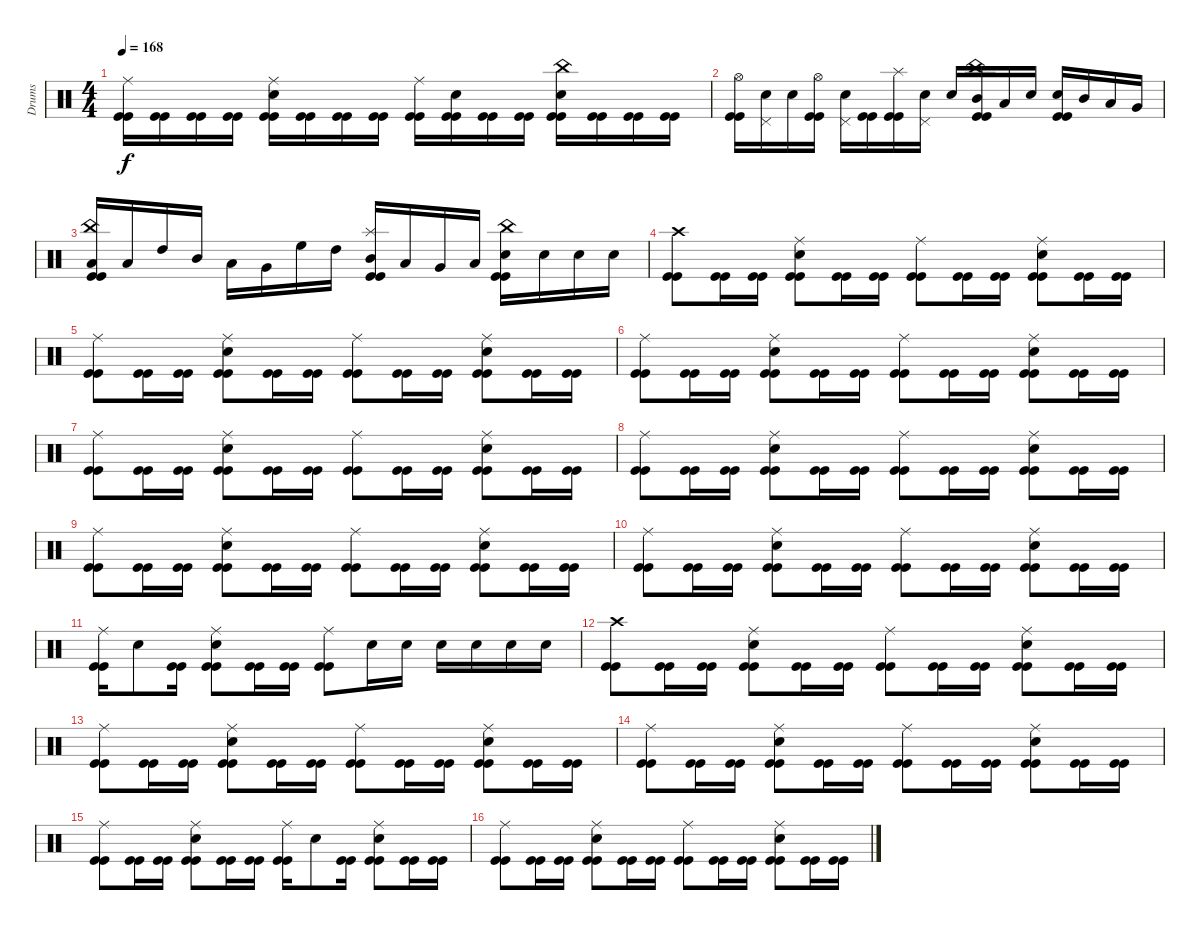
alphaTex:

\track ("Drums" "Drums") {instrument percussion}
\staff {score}
\articulation defaults
\ts (4 4)
\tempo 168
\clef neutral
\ks c
("Ride (middle)" "Kick (hit)" "Kick (hit)").16{dy f} ("Kick (hit)" "Kick (hit)").16 ("Kick (hit)" "Kick (hit)").16 ("Kick (hit)" "Kick (hit)").16 ("Ride (middle)" "Electric Snare (hit)" "Kick (hit)" "Kick (hit)").16 ("Kick (hit)" "Kick (hit)").16 ("Kick (hit)" "Kick (hit)").16 ("Kick (hit)" "Kick (hit)").16 ("Ride (middle)" "Kick (hit)" "Kick (hit)").16 ("Electric Snare (hit)" "Kick (hit)" "Kick (hit)").16 ("Kick (hit)" "Kick (hit)").16 ("Kick (hit)" "Kick (hit)").16 ("China (hit)" "Electric Snare (hit)" "Kick (hit)" "Kick (hit)").16 ("Kick (hit)" "Kick (hit)").16 ("Kick (hit)" "Kick (hit)").16 ("Kick (hit)" "Kick (hit)").16 |
("Hi-Hat (open)" "Kick (hit)" "Kick (hit)").16 ("Pedal Hi-Hat (hit)" "Electric Snare (hit)").16 "Electric Snare (hit)".16 ("Hi-Hat (open)" "Kick (hit)" "Kick (hit)").16 ("Pedal Hi-Hat (hit)" "Electric Snare (hit)").16 ("Kick (hit)" "Kick (hit)").16 ("Splash (hit)" "Kick (hit)" "Kick (hit)").16 ("Pedal Hi-Hat (hit)" "Electric Snare (hit)").16 "Electric Snare (hit)".16 ("China (hit)" "Mid Tom (hit)" "Kick (hit)" "Kick (hit)").16 "Low Tom (hit)".16 "Electric Snare (hit)".16 ("Electric Snare (hit)" "Kick (hit)" "Kick (hit)").16 "Mid Tom (hit)".16 "Low Tom (hit)".16 "Very Low Tom (hit)".16 |
("China (hit)" "Low Tom (hit)" "Kick (hit)" "Kick (hit)").16 "Low Tom (hit)".16 "High Tom (hit)".16 "Mid Tom (hit)".16 "Low Tom (hit)".16 "Very Low Tom (hit)".16 "High Floor Tom (hit)".16 "High Tom (hit)".16 ("Splash (hit)" "Mid Tom (hit)" "Kick (hit)" "Kick (hit)").16 "Low Tom (hit)".16 "Very Low Tom (hit)".16 "Low Floor Tom (hit)".16 ("China (hit)" "Electric Snare (hit)" "Kick (hit)" "Kick (hit)").16 "Electric Snare (hit)".16 "Electric Snare (hit)".16 "Electric Snare (hit)".16 |
("Crash high (hit)" "Kick (hit)" "Kick (hit)").8 ("Kick (hit)" "Kick (hit)").16 ("Kick (hit)" "Kick (hit)").16 ("Ride (middle)" "Electric Snare (hit)" "Kick (hit)" "Kick (hit)").8 ("Kick (hit)" "Kick (hit)").16 ("Kick (hit)" "Kick (hit)").16 ("Ride (middle)" "Kick (hit)" "Kick (hit)").8 ("Kick (hit)" "Kick (hit)").16 ("Kick (hit)" "Kick (hit)").16 ("Ride (middle)" "Electric Snare (hit)" "Kick (hit)" "Kick (hit)").8 ("Kick (hit)" "Kick (hit)").16 ("Kick (hit)" "Kick (hit)").16 |
("Ride (middle)" "Kick (hit)" "Kick (hit)").8 ("Kick (hit)" "Kick (hit)").16 ("Kick (hit)" "Kick (hit)").16 ("Ride (middle)" "Electric Snare (hit)" "Kick (hit)" "Kick (hit)").8 ("Kick (hit)" "Kick (hit)").16 ("Kick (hit)" "Kick (hit)").16 ("Ride (middle)" "Kick (hit)" "Kick (hit)").8 ("Kick (hit)" "Kick (hit)").16 ("Kick (hit)" "Kick (hit)").16 ("Ride (middle)" "Electric Snare (hit)" "Kick (hit)" "Kick (hit)").8 ("Kick (hit)" "Kick (hit)").16 ("Kick (hit)" "Kick (hit)").16 |
("Ride (middle)" "Kick (hit)" "Kick (hit)").8 ("Kick (hit)" "Kick (hit)").16 ("Kick (hit)" "Kick (hit)").16 ("Ride (middle)" "Electric Snare (hit)" "Kick (hit)" "Kick (hit)").8 ("Kick (hit)" "Kick (hit)").16 ("Kick (hit)" "Kick (hit)").16 ("Ride (middle)" "Kick (hit)" "Kick (hit)").8 ("Kick (hit)" "Kick (hit)").16 ("Kick (hit)" "Kick (hit)").16 ("Ride (middle)" "Electric Snare (hit)" "Kick (hit)" "Kick (hit)").8 ("Kick (hit)" "Kick (hit)").16 ("Kick (hit)" "Kick (hit)").16 |
("Ride (middle)" "Kick (hit)" "Kick (hit)").8 ("Kick (hit)" "Kick (hit)").16 ("Kick (hit)" "Kick (hit)").16 ("Ride (middle)" "Electric Snare (hit)" "Kick (hit)" "Kick (hit)").8 ("Kick (hit)" "Kick (hit)").16 ("Kick (hit)" "Kick (hit)").16 ("Ride (middle)" "Kick (hit)" "Kick (hit)").8 ("Kick (hit)" "Kick (hit)").16 ("Kick (hit)" "Kick (hit)").16 ("Ride (middle)" "Electric Snare (hit)" "Kick (hit)" "Kick (hit)").8 ("Kick (hit)" "Kick (hit)").16 ("Kick (hit)" "Kick (hit)").16 |
("Ride (middle)" "Kick (hit)" "Kick (hit)").8 ("Kick (hit)" "Kick (hit)").16 ("Kick (hit)" "Kick (hit)").16 ("Ride (middle)" "Electric Snare (hit)" "Kick (hit)" "Kick (hit)").8 ("Kick (hit)" "Kick (hit)").16 ("Kick (hit)" "Kick (hit)").16 ("Ride (middle)" "Kick (hit)" "Kick (hit)").8 ("Kick (hit)" "Kick (hit)").16 ("Kick (hit)" "Kick (hit)").16 ("Ride (middle)" "Electric Snare (hit)" "Kick (hit)" "Kick (hit)").8 ("Kick (hit)" "Kick (hit)").16 ("Kick (hit)" "Kick (hit)").16 |
("Ride (middle)" "Kick (hit)" "Kick (hit)").8 ("Kick (hit)" "Kick (hit)").16 ("Kick (hit)" "Kick (hit)").16 ("Ride (middle)" "Electric Snare (hit)" "Kick (hit)" "Kick (hit)").8 ("Kick (hit)" "Kick (hit)").16 ("Kick (hit)" "Kick (hit)").16 ("Ride (middle)" "Kick (hit)" "Kick (hit)").8 ("Kick (hit)" "Kick (hit)").16 ("Kick (hit)" "Kick (hit)").16 ("Ride (middle)" "Electric Snare (hit)" "Kick (hit)" "Kick (hit)").8 ("Kick (hit)" "Kick (hit)").16 ("Kick (hit)" "Kick (hit)").16 |
("Ride (middle)" "Kick (hit)" "Kick (hit)").8 ("Kick (hit)" "Kick (hit)").16 ("Kick (hit)" "Kick (hit)").16 ("Ride (middle)" "Electric Snare (hit)" "Kick (hit)" "Kick (hit)").8 ("Kick (hit)" "Kick (hit)").16 ("Kick (hit)" "Kick (hit)").16 ("Ride (middle)" "Kick (hit)" "Kick (hit)").8 ("Kick (hit)" "Kick (hit)").16 ("Kick (hit)" "Kick (hit)").16 ("Ride (middle)" "Electric Snare (hit)" "Kick (hit)" "Kick (hit)").8 ("Kick (hit)" "Kick (hit)").16 ("Kick (hit)" "Kick (hit)").16 |
("Ride (middle)" "Kick (hit)" "Kick (hit)").16 "Electric Snare (hit)".8 ("Kick (hit)" "Kick (hit)").16 ("Ride (middle)" "Electric Snare (hit)" "Kick (hit)" "Kick (hit)").8 ("Kick (hit)" "Kick (hit)").16 ("Kick (hit)" "Kick (hit)").16 ("Ride (middle)" "Kick (hit)" "Kick (hit)").8 "Electric Snare (hit)".16 "Electric Snare (hit)".16 "Electric Snare (hit)".16 "Electric Snare (hit)".16 "Electric Snare (hit)".16 "Electric Snare (hit)".16 |
("Crash high (hit)" "Kick (hit)" "Kick (hit)").8 ("Kick (hit)" "Kick (hit)").16 ("Kick (hit)" "Kick (hit)").16 ("Ride (middle)" "Electric Snare (hit)" "Kick (hit)" "Kick (hit)").8 ("Kick (hit)" "Kick (hit)").16 ("Kick (hit)" "Kick (hit)").16 ("Ride (middle)" "Kick (hit)" "Kick (hit)").8 ("Kick (hit)" "Kick (hit)").16 ("Kick (hit)" "Kick (hit)").16 ("Ride (middle)" "Electric Snare (hit)" "Kick (hit)" "Kick (hit)").8 ("Kick (hit)" "Kick (hit)").16 ("Kick (hit)" "Kick (hit)").16 |
("Ride (middle)" "Kick (hit)" "Kick (hit)").8 ("Kick (hit)" "Kick (hit)").16 ("Kick (hit)" "Kick (hit)").16 ("Ride (middle)" "Electric Snare (hit)" "Kick (hit)" "Kick (hit)").8 ("Kick (hit)" "Kick (hit)").16 ("Kick (hit)" "Kick (hit)").16 ("Ride (middle)" "Kick (hit)" "Kick (hit)").8 ("Kick (hit)" "Kick (hit)").16 ("Kick (hit)" "Kick (hit)").16 ("Ride (middle)" "Electric Snare (hit)" "Kick (hit)" "Kick (hit)").8 ("Kick (hit)" "Kick (hit)").16 ("Kick (hit)" "Kick (hit)").16 |
("Ride (middle)" "Kick (hit)" "Kick (hit)").8 ("Kick (hit)" "Kick (hit)").16 ("Kick (hit)" "Kick (hit)").16 ("Ride (middle)" "Electric Snare (hit)" "Kick (hit)" "Kick (hit)").8 ("Kick (hit)" "Kick (hit)").16 ("Kick (hit)" "Kick (hit)").16 ("Ride (middle)" "Kick (hit)" "Kick (hit)").8 ("Kick (hit)" "Kick (hit)").16 ("Kick (hit)" "Kick (hit)").16 ("Ride (middle)" "Electric Snare (hit)" "Kick (hit)" "Kick (hit)").8 ("Kick (hit)" "Kick (hit)").16 ("Kick (hit)" "Kick (hit)").16 |
("Ride (middle)" "Kick (hit)" "Kick (hit)").8 ("Kick (hit)" "Kick (hit)").16 ("Kick (hit)" "Kick (hit)").16 ("Ride (middle)" "Electric Snare (hit)" "Kick (hit)" "Kick (hit)").8 ("Kick (hit)" "Kick (hit)").16 ("Kick (hit)" "Kick (hit)").16 ("Ride (middle)" "Kick (hit)" "Kick (hit)").16 "Electric Snare (hit)".8 ("Kick (hit)" "Kick (hit)").16 ("Ride (middle)" "Electric Snare (hit)" "Kick (hit)" "Kick (hit)").8 ("Kick (hit)" "Kick (hit)").16 ("Kick (hit)" "Kick (hit)").16 |
("Ride (middle)" "Kick (hit)" "Kick (hit)").8 ("Kick (hit)" "Kick (hit)").16 ("Kick (hit)" "Kick (hit)").16 ("Ride (middle)" "Electric Snare (hit)" "Kick (hit)" "Kick (hit)").8 ("Kick (hit)" "Kick (hit)").16 ("Kick (hit)" "Kick (hit)").16 ("Ride (middle)" "Kick (hit)" "Kick (hit)").8 ("Kick (hit)" "Kick (hit)").16 ("Kick (hit)" "Kick (hit)").16 ("Ride (middle)" "Electric Snare (hit)" "Kick (hit)" "Kick (hit)").8 ("Kick (hit)" "Kick (hit)").16 ("Kick (hit)" "Kick (hit)").16
